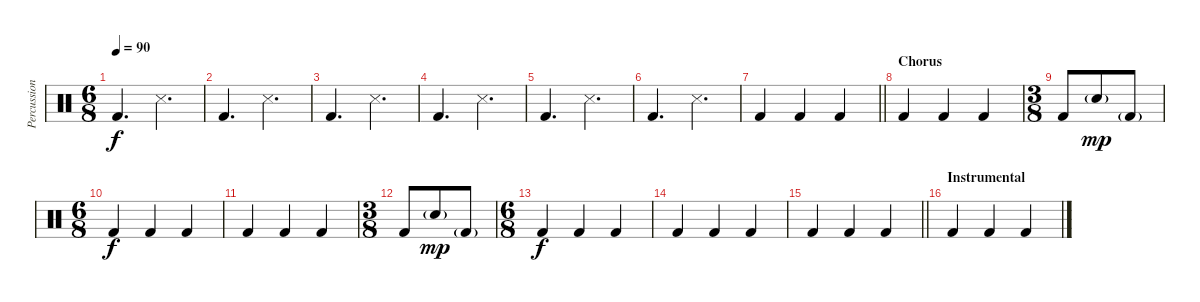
\track ("Percussion" "Percussion") {instrument percussion}
\staff {score}
\articulation defaults
\ts (6 8)
\tempo 90
\clef neutral
\ks c "Kick (hit) 2".4{d dy f} "Snare (side stick) 3".4{d}
|
"Kick (hit) 2".4{d} "Snare (side stick) 3".4{d} |
"Kick (hit) 2".4{d} "Snare (side stick) 3".4{d} |
"Kick (hit) 2".4{d} "Snare (side stick) 3".4{d} |
"Kick (hit) 2".4{d} "Snare (side stick) 3".4{d} |
"Kick (hit) 2".4{d} "Snare (side stick) 3".4{d} |
\barLineRight lightlight "Kick (hit) 2".4 "Kick (hit) 2".4 "Kick (hit) 2".4
|
\section ("" "Chorus")
"Kick (hit) 2".4 "Kick (hit) 2".4 "Kick (hit) 2".4 |
\ts (3 8)
"Kick (hit) 2".8 "Snare (hit) 2"{g}.8{dy mp} "Kick (hit) 2"{g}.8 |
\ts (6 8)
"Kick (hit) 2".4{dy f} "Kick (hit) 2".4 "Kick (hit) 2".4 |
"Kick (hit) 2".4 "Kick (hit) 2".4 "Kick (hit) 2".4 |
\ts (3 8)
"Kick (hit) 2".8 "Snare (hit) 2"{g}.8{dy mp} "Kick (hit) 2"{g}.8 |
\ts (6 8)
"Kick (hit) 2".4{dy f} "Kick (hit) 2".4 "Kick (hit) 2".4 |
"Kick (hit) 2".4 "Kick (hit) 2".4 "Kick (hit) 2".4 |
\barLineRight lightlight "Kick (hit) 2".4 "Kick (hit) 2".4 "Kick (hit) 2".4
|
\section ("" "Instrumental")
"Kick (hit) 2".4 "Kick (hit) 2".4 "Kick (hit) 2".4
